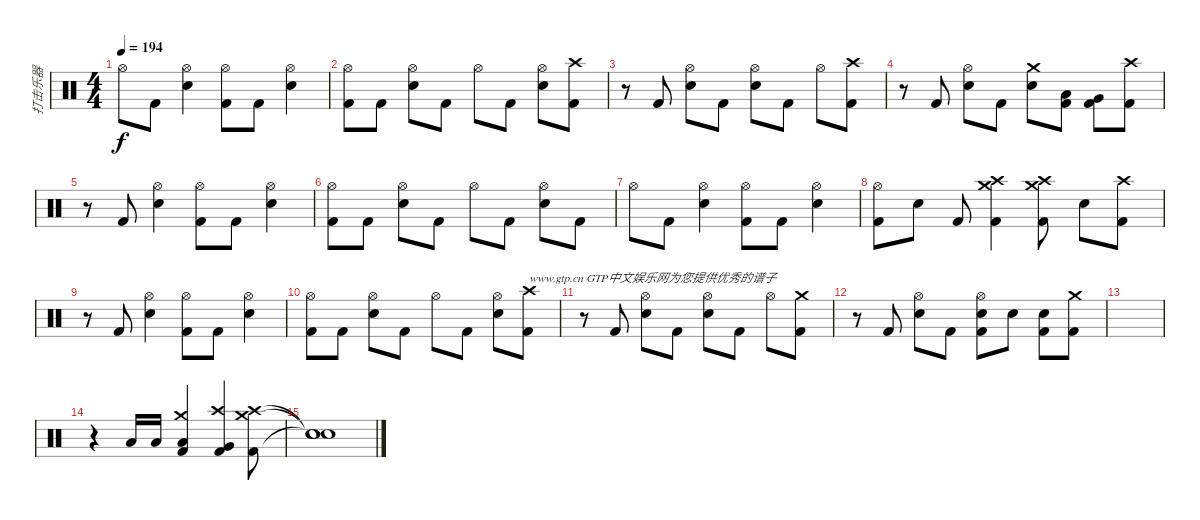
\track ("打击乐器" "打击乐器") {instrument percussion}
\staff {score}
\articulation defaults
\ts (4 4)
\tempo 194
\clef neutral
\ks c "Hi-Hat (open)".8{dy f} "Kick (hit) 2".8
("Hi-Hat (open)" "Electric Snare (hit)").4 ("Hi-Hat (open)" "Kick (hit) 2").8 "Kick (hit) 2".8 ("Hi-Hat (open)" "Electric Snare (hit)").4 |
("Hi-Hat (open)" "Kick (hit) 2").8 "Kick (hit) 2".8 ("Hi-Hat (open)" "Electric Snare (hit)").8 "Kick (hit) 2".8 "Hi-Hat (open)".8 "Kick (hit) 2".8 ("Hi-Hat (open)" "Electric Snare (hit)").8 ("Crash high (hit)" "Kick (hit) 2").8 |
r.8 "Kick (hit) 2".8 ("Hi-Hat (open)" "Electric Snare (hit)").8 "Kick (hit) 2".8 ("Hi-Hat (open)" "Electric Snare (hit)").8 "Kick (hit) 2".8 "Hi-Hat (open)".8 ("Crash high (hit)" "Kick (hit) 2").8 |
r.8 "Kick (hit) 2".8 ("Hi-Hat (open)" "Electric Snare (hit)").8 "Kick (hit) 2".8 ("Crash medium (hit)" "Electric Snare (hit)").8 ("Low Tom (hit)" "Kick (hit) 2").8 ("Very Low Tom (hit)" "Kick (hit) 2").8 ("Crash high (hit)" "Kick (hit) 2").8 |
r.8 "Kick (hit) 2".8 ("Hi-Hat (open)" "Electric Snare (hit)").4 ("Hi-Hat (open)" "Kick (hit) 2").8 "Kick (hit) 2".8 ("Hi-Hat (open)" "Electric Snare (hit)").4 |
("Hi-Hat (open)" "Kick (hit) 2").8 "Kick (hit) 2".8 ("Hi-Hat (open)" "Electric Snare (hit)").8 "Kick (hit) 2".8 "Hi-Hat (open)".8 "Kick (hit) 2".8 ("Hi-Hat (open)" "Electric Snare (hit)").8 "Kick (hit) 2".8 |
"Hi-Hat (open)".8 "Kick (hit) 2".8 ("Hi-Hat (open)" "Electric Snare (hit)").4 ("Hi-Hat (open)" "Kick (hit) 2").8 "Kick (hit) 2".8 ("Hi-Hat (open)" "Electric Snare (hit)").4 |
("Hi-Hat (open)" "Kick (hit) 2").8 "Electric Snare (hit)".8 "Kick (hit) 2".8 ("Crash medium (hit)" "Crash high (hit)" "Kick (hit) 2").4 ("Crash medium (hit)" "Crash high (hit)" "Kick (hit) 2").8 "Electric Snare (hit)".8 ("Crash high (hit)" "Kick (hit) 2").8 |
r.8 "Kick (hit) 2".8 ("Hi-Hat (open)" "Electric Snare (hit)").4 ("Hi-Hat (open)" "Kick (hit) 2").8 "Kick (hit) 2".8 ("Hi-Hat (open)" "Electric Snare (hit)").4 |
("Hi-Hat (open)" "Kick (hit) 2").8 "Kick (hit) 2".8 ("Hi-Hat (open)" "Electric Snare (hit)").8 "Kick (hit) 2".8 "Hi-Hat (open)".8 "Kick (hit) 2".8 ("Hi-Hat (open)" "Electric Snare (hit)").8 ("Crash high (hit)" "Kick (hit) 2").8{txt "www.gtp.cn GTP中文娱乐网为您提供优秀的谱子"} |
r.8 "Kick (hit) 2".8 ("Hi-Hat (open)" "Electric Snare (hit)").8 "Kick (hit) 2".8 ("Hi-Hat (open)" "Electric Snare (hit)").8 "Kick (hit) 2".8 "Hi-Hat (open)".8 ("Crash medium (hit)" "Kick (hit) 2").8 |
r.8 "Kick (hit) 2".8 ("Hi-Hat (open)" "Electric Snare (hit)").8 "Kick (hit) 2".8 ("Hi-Hat (open)" "Electric Snare (hit)" "Kick (hit) 2").8 "Electric Snare (hit)".8 ("Electric Snare (hit)" "Kick (hit) 2").8 ("Crash medium (hit)" "Kick (hit) 2").8 |
|
r.4 "Low Tom (hit)".16 "Low Tom (hit)".16 ("Crash medium (hit)" "Low Tom (hit)" "Kick (hit) 2").4 ("Crash high (hit)" "Very Low Tom (hit)" "Kick (hit) 2").4 ("Crash medium (hit)" "Crash high (hit)" "Kick (hit) 2").8 |
("Snare (hit)"{t} "Snare (hit)"{t} "Snare (hit)"{t}).1
